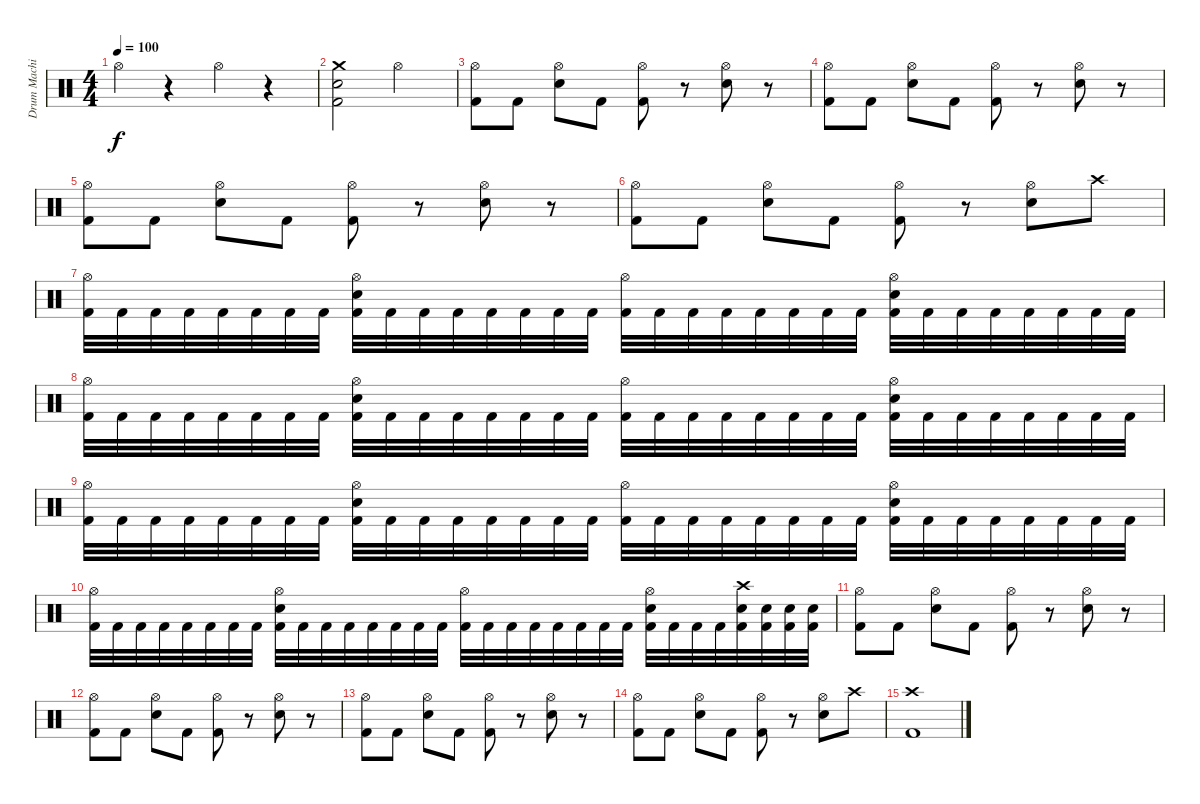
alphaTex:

\track ("Drum Machine" "Drum Machi") {instrument percussion}
\staff {score}
\articulation defaults
\ts (4 4)
\tempo 100
\clef neutral
\ks c "Hi-Hat (open)".4{dy f}
r.4 "Hi-Hat (open)".4 r.4 |
("Crash medium (hit)" "Snare (hit) 2" "Kick (hit) 2").2 "Hi-Hat (open)".2 |
("Hi-Hat (open)" "Kick (hit) 2").8 "Kick (hit) 2".8 ("Hi-Hat (open)" "Snare (hit) 2").8 "Kick (hit) 2".8 ("Hi-Hat (open)" "Kick (hit) 2").8 r.8 ("Hi-Hat (open)" "Snare (hit) 2").8 r.8 |
("Hi-Hat (open)" "Kick (hit) 2").8 "Kick (hit) 2".8 ("Hi-Hat (open)" "Snare (hit) 2").8 "Kick (hit) 2".8 ("Hi-Hat (open)" "Kick (hit) 2").8 r.8 ("Hi-Hat (open)" "Snare (hit) 2").8 r.8 |
("Hi-Hat (open)" "Kick (hit) 2").8 "Kick (hit) 2".8 ("Hi-Hat (open)" "Snare (hit) 2").8 "Kick (hit) 2".8 ("Hi-Hat (open)" "Kick (hit) 2").8 r.8 ("Hi-Hat (open)" "Snare (hit) 2").8 r.8 |
("Hi-Hat (open)" "Kick (hit) 2").8 "Kick (hit) 2".8 ("Hi-Hat (open)" "Snare (hit) 2").8 "Kick (hit) 2".8 ("Hi-Hat (open)" "Kick (hit) 2").8 r.8 ("Hi-Hat (open)" "Snare (hit) 2").8 "Crash high (hit)".8 |
("Hi-Hat (open)" "Kick (hit) 2").32 "Kick (hit) 2".32 "Kick (hit) 2".32 "Kick (hit) 2".32 "Kick (hit) 2".32 "Kick (hit) 2".32 "Kick (hit) 2".32 "Kick (hit) 2".32 ("Hi-Hat (open)" "Snare (hit) 2" "Kick (hit) 2").32 "Kick (hit) 2".32 "Kick (hit) 2".32 "Kick (hit) 2".32 "Kick (hit) 2".32 "Kick (hit) 2".32 "Kick (hit) 2".32 "Kick (hit) 2".32 ("Hi-Hat (open)" "Kick (hit) 2").32 "Kick (hit) 2".32 "Kick (hit) 2".32 "Kick (hit) 2".32 "Kick (hit) 2".32 "Kick (hit) 2".32 "Kick (hit) 2".32 "Kick (hit) 2".32 ("Hi-Hat (open)" "Snare (hit) 2" "Kick (hit) 2").32 "Kick (hit) 2".32 "Kick (hit) 2".32 "Kick (hit) 2".32 "Kick (hit) 2".32 "Kick (hit) 2".32 "Kick (hit) 2".32 "Kick (hit) 2".32 |
("Hi-Hat (open)" "Kick (hit) 2").32 "Kick (hit) 2".32 "Kick (hit) 2".32 "Kick (hit) 2".32 "Kick (hit) 2".32 "Kick (hit) 2".32 "Kick (hit) 2".32 "Kick (hit) 2".32 ("Hi-Hat (open)" "Snare (hit) 2" "Kick (hit) 2").32 "Kick (hit) 2".32 "Kick (hit) 2".32 "Kick (hit) 2".32 "Kick (hit) 2".32 "Kick (hit) 2".32 "Kick (hit) 2".32 "Kick (hit) 2".32 ("Hi-Hat (open)" "Kick (hit) 2").32 "Kick (hit) 2".32 "Kick (hit) 2".32 "Kick (hit) 2".32 "Kick (hit) 2".32 "Kick (hit) 2".32 "Kick (hit) 2".32 "Kick (hit) 2".32 ("Hi-Hat (open)" "Snare (hit) 2" "Kick (hit) 2").32 "Kick (hit) 2".32 "Kick (hit) 2".32 "Kick (hit) 2".32 "Kick (hit) 2".32 "Kick (hit) 2".32 "Kick (hit) 2".32 "Kick (hit) 2".32 |
("Hi-Hat (open)" "Kick (hit) 2").32 "Kick (hit) 2".32 "Kick (hit) 2".32 "Kick (hit) 2".32 "Kick (hit) 2".32 "Kick (hit) 2".32 "Kick (hit) 2".32 "Kick (hit) 2".32 ("Hi-Hat (open)" "Snare (hit) 2" "Kick (hit) 2").32 "Kick (hit) 2".32 "Kick (hit) 2".32 "Kick (hit) 2".32 "Kick (hit) 2".32 "Kick (hit) 2".32 "Kick (hit) 2".32 "Kick (hit) 2".32 ("Hi-Hat (open)" "Kick (hit) 2").32 "Kick (hit) 2".32 "Kick (hit) 2".32 "Kick (hit) 2".32 "Kick (hit) 2".32 "Kick (hit) 2".32 "Kick (hit) 2".32 "Kick (hit) 2".32 ("Hi-Hat (open)" "Snare (hit) 2" "Kick (hit) 2").32 "Kick (hit) 2".32 "Kick (hit) 2".32 "Kick (hit) 2".32 "Kick (hit) 2".32 "Kick (hit) 2".32 "Kick (hit) 2".32 "Kick (hit) 2".32 |
("Hi-Hat (open)" "Kick (hit) 2").32 "Kick (hit) 2".32 "Kick (hit) 2".32 "Kick (hit) 2".32 "Kick (hit) 2".32 "Kick (hit) 2".32 "Kick (hit) 2".32 "Kick (hit) 2".32 ("Hi-Hat (open)" "Snare (hit) 2" "Kick (hit) 2").32 "Kick (hit) 2".32 "Kick (hit) 2".32 "Kick (hit) 2".32 "Kick (hit) 2".32 "Kick (hit) 2".32 "Kick (hit) 2".32 "Kick (hit) 2".32 ("Hi-Hat (open)" "Kick (hit) 2").32 "Kick (hit) 2".32 "Kick (hit) 2".32 "Kick (hit) 2".32 "Kick (hit) 2".32 "Kick (hit) 2".32 "Kick (hit) 2".32 "Kick (hit) 2".32 ("Hi-Hat (open)" "Snare (hit) 2" "Kick (hit) 2").32 "Kick (hit) 2".32 "Kick (hit) 2".32 "Kick (hit) 2".32 ("Crash high (hit)" "Snare (hit) 2" "Kick (hit) 2").32 ("Snare (hit) 2" "Kick (hit) 2").32 ("Snare (hit) 2" "Kick (hit) 2").32 ("Snare (hit) 2" "Kick (hit) 2").32 |
("Hi-Hat (open)" "Kick (hit) 2").8 "Kick (hit) 2".8 ("Hi-Hat (open)" "Snare (hit) 2").8 "Kick (hit) 2".8 ("Hi-Hat (open)" "Kick (hit) 2").8 r.8 ("Hi-Hat (open)" "Snare (hit) 2").8 r.8 |
("Hi-Hat (open)" "Kick (hit) 2").8 "Kick (hit) 2".8 ("Hi-Hat (open)" "Snare (hit) 2").8 "Kick (hit) 2".8 ("Hi-Hat (open)" "Kick (hit) 2").8 r.8 ("Hi-Hat (open)" "Snare (hit) 2").8 r.8 |
("Hi-Hat (open)" "Kick (hit) 2").8 "Kick (hit) 2".8 ("Hi-Hat (open)" "Snare (hit) 2").8 "Kick (hit) 2".8 ("Hi-Hat (open)" "Kick (hit) 2").8 r.8 ("Hi-Hat (open)" "Snare (hit) 2").8 r.8 |
("Hi-Hat (open)" "Kick (hit) 2").8 "Kick (hit) 2".8 ("Hi-Hat (open)" "Snare (hit) 2").8 "Kick (hit) 2".8 ("Hi-Hat (open)" "Kick (hit) 2").8 r.8 ("Hi-Hat (open)" "Snare (hit) 2").8 "Crash high (hit)".8 |
("Crash high (hit)" "Kick (hit) 2").1
